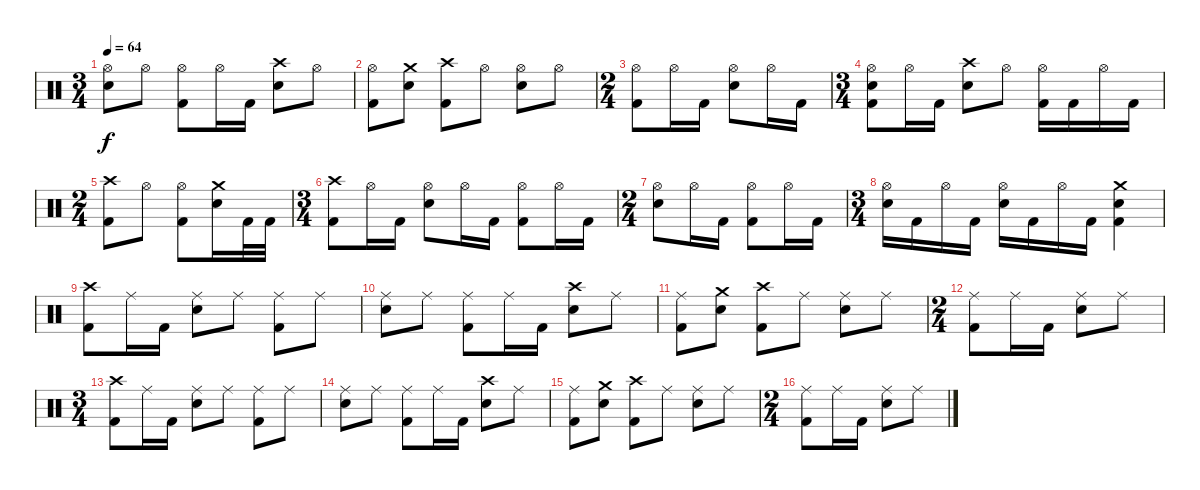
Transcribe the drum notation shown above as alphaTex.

\track "" {instrument percussion}
\staff {score}
\articulation defaults
\ts (3 4)
\tempo 64
\clef neutral
\ks c
("Hi-Hat (open)" "Snare (hit) 2").8{dy f} "Hi-Hat (open)".8 ("Hi-Hat (open)" "Kick (hit) 2").8 "Hi-Hat (open)".16 "Kick (hit) 2".16 ("Crash high (hit)" "Snare (hit) 2").8 "Hi-Hat (open)".8 |
("Hi-Hat (open)" "Kick (hit) 2").8 ("Crash medium (hit)" "Snare (hit) 2").8 ("Crash high (hit)" "Kick (hit) 2").8 "Hi-Hat (open)".8 ("Hi-Hat (open)" "Snare (hit) 2").8 "Hi-Hat (open)".8 |
\ts (2 4)
("Hi-Hat (open)" "Kick (hit) 2").8 "Hi-Hat (open)".16 "Kick (hit) 2".16 ("Hi-Hat (open)" "Snare (hit) 2").8 "Hi-Hat (open)".16 "Kick (hit) 2".16 |
\ts (3 4)
("Hi-Hat (open)" "Snare (hit) 2" "Kick (hit) 2").8 "Hi-Hat (open)".16 "Kick (hit) 2".16 ("Crash high (hit)" "Snare (hit) 2").8 "Hi-Hat (open)".8 ("Hi-Hat (open)" "Kick (hit) 2").16 "Kick (hit) 2".16 "Hi-Hat (open)".16 "Kick (hit) 2".16 |
\ts (2 4)
("Crash high (hit)" "Kick (hit) 2").8 "Hi-Hat (open)".8 ("Hi-Hat (open)" "Kick (hit) 2").8 ("Crash medium (hit)" "Snare (hit) 2").16 "Kick (hit) 2".32 "Kick (hit) 2".32 |
\ts (3 4)
("Crash high (hit)" "Kick (hit) 2").8 "Hi-Hat (open)".16 "Kick (hit) 2".16 ("Hi-Hat (open)" "Snare (hit) 2").8 "Hi-Hat (open)".16 "Kick (hit) 2".16 ("Hi-Hat (open)" "Kick (hit) 2").8 "Hi-Hat (open)".16 "Kick (hit) 2".16 |
\ts (2 4)
("Hi-Hat (open)" "Snare (hit) 2").8 "Hi-Hat (open)".16 "Kick (hit) 2".16 ("Hi-Hat (open)" "Kick (hit) 2").8 "Hi-Hat (open)".16 "Kick (hit) 2".16 |
\ts (3 4)
("Hi-Hat (open)" "Snare (hit) 2").16 "Kick (hit) 2".16 "Hi-Hat (open)".16 "Kick (hit) 2".16 ("Hi-Hat (open)" "Snare (hit) 2").16 "Kick (hit) 2".16 "Hi-Hat (open)".16 "Kick (hit) 2".16 ("Crash medium (hit)" "Snare (hit) 2" "Kick (hit) 2").4 |
("Crash high (hit)" "Kick (hit) 2").8 "Ride (middle)".16 "Kick (hit) 2".16 ("Ride (middle)" "Snare (hit) 2").8 "Ride (middle)".8 ("Ride (middle)" "Kick (hit) 2").8 "Ride (middle)".8 |
("Ride (middle)" "Snare (hit) 2").8 "Ride (middle)".8 ("Ride (middle)" "Kick (hit) 2").8 "Ride (middle)".16 "Kick (hit) 2".16 ("Crash high (hit)" "Snare (hit) 2").8 "Ride (middle)".8 |
("Ride (middle)" "Kick (hit) 2").8 ("Crash medium (hit)" "Snare (hit) 2").8 ("Crash high (hit)" "Kick (hit) 2").8 "Ride (middle)".8 ("Ride (middle)" "Snare (hit) 2").8 "Ride (middle)".8 |
\ts (2 4)
("Ride (middle)" "Kick (hit) 2").8 "Ride (middle)".16 "Kick (hit) 2".16 ("Ride (middle)" "Snare (hit) 2").8 "Ride (middle)".8 |
\ts (3 4)
("Crash high (hit)" "Kick (hit) 2").8 "Ride (middle)".16 "Kick (hit) 2".16 ("Ride (middle)" "Snare (hit) 2").8 "Ride (middle)".8 ("Ride (middle)" "Kick (hit) 2").8 "Ride (middle)".8 |
("Ride (middle)" "Snare (hit) 2").8 "Ride (middle)".8 ("Ride (middle)" "Kick (hit) 2").8 "Ride (middle)".16 "Kick (hit) 2".16 ("Crash high (hit)" "Snare (hit) 2").8 "Ride (middle)".8 |
("Ride (middle)" "Kick (hit) 2").8 ("Crash medium (hit)" "Snare (hit) 2").8 ("Crash high (hit)" "Kick (hit) 2").8 "Ride (middle)".8 ("Ride (middle)" "Snare (hit) 2").8 "Ride (middle)".8 |
\ts (2 4)
("Ride (middle)" "Kick (hit) 2").8 "Ride (middle)".16 "Kick (hit) 2".16 ("Ride (middle)" "Snare (hit) 2").8 "Ride (middle)".8
